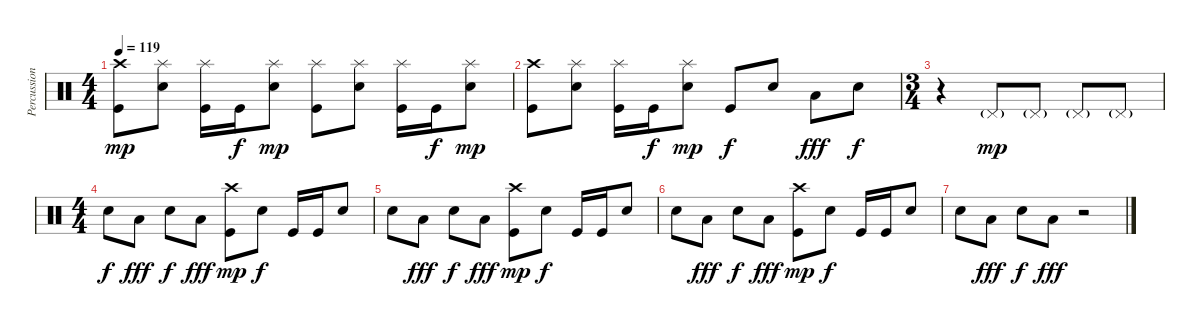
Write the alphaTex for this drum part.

\track ("Percussion" "Percussion") {instrument percussion}
\staff {score}
\articulation defaults
\ts (4 4)
\tempo 119
\clef neutral
\ks c
("Crash high (hit)" "Kick (hit)").8{dy mp} ("Splash (hit)" "Electric Snare (hit)").8 ("Splash (hit)" "Kick (hit)").16 "Kick (hit)".16{dy f} ("Splash (hit)" "Electric Snare (hit)").8{dy mp} ("Splash (hit)" "Kick (hit)").8 ("Splash (hit)" "Electric Snare (hit)").8 ("Splash (hit)" "Kick (hit)").16 "Kick (hit)".16{dy f} ("Splash (hit)" "Electric Snare (hit)").8{dy mp} |
("Crash high (hit)" "Kick (hit)").8 ("Splash (hit)" "Electric Snare (hit)").8 ("Splash (hit)" "Kick (hit)").16 "Kick (hit)".16{dy f} ("Splash (hit)" "Electric Snare (hit)").8{dy mp} "Kick (hit)".8{dy f} "Electric Snare (hit)".8 "Low Tom (hit)".8{dy fff} "Electric Snare (hit)".8{dy f} |
\ts (3 4)
r.4 "Pedal Hi-Hat (hit)"{g}.8{dy mp} "Pedal Hi-Hat (hit)"{g}.8 "Pedal Hi-Hat (hit)"{g}.8 "Pedal Hi-Hat (hit)"{g}.8 |
\ts (4 4)
"Electric Snare (hit)".8{dy f} "Low Tom (hit)".8{dy fff} "Electric Snare (hit)".8{dy f} "Low Tom (hit)".8{dy fff} ("Crash high (hit)" "Kick (hit)").8{dy mp} "Electric Snare (hit)".8{dy f} "Kick (hit)".16 "Kick (hit)".16 "Electric Snare (hit)".8 |
"Electric Snare (hit)".8 "Low Tom (hit)".8{dy fff} "Electric Snare (hit)".8{dy f} "Low Tom (hit)".8{dy fff} ("Crash high (hit)" "Kick (hit)").8{dy mp} "Electric Snare (hit)".8{dy f} "Kick (hit)".16 "Kick (hit)".16 "Electric Snare (hit)".8 |
"Electric Snare (hit)".8 "Low Tom (hit)".8{dy fff} "Electric Snare (hit)".8{dy f} "Low Tom (hit)".8{dy fff} ("Crash high (hit)" "Kick (hit)").8{dy mp} "Electric Snare (hit)".8{dy f} "Kick (hit)".16 "Kick (hit)".16 "Electric Snare (hit)".8 |
"Electric Snare (hit)".8 "Low Tom (hit)".8{dy fff} "Electric Snare (hit)".8{dy f} "Low Tom (hit)".8{dy fff} r.2
